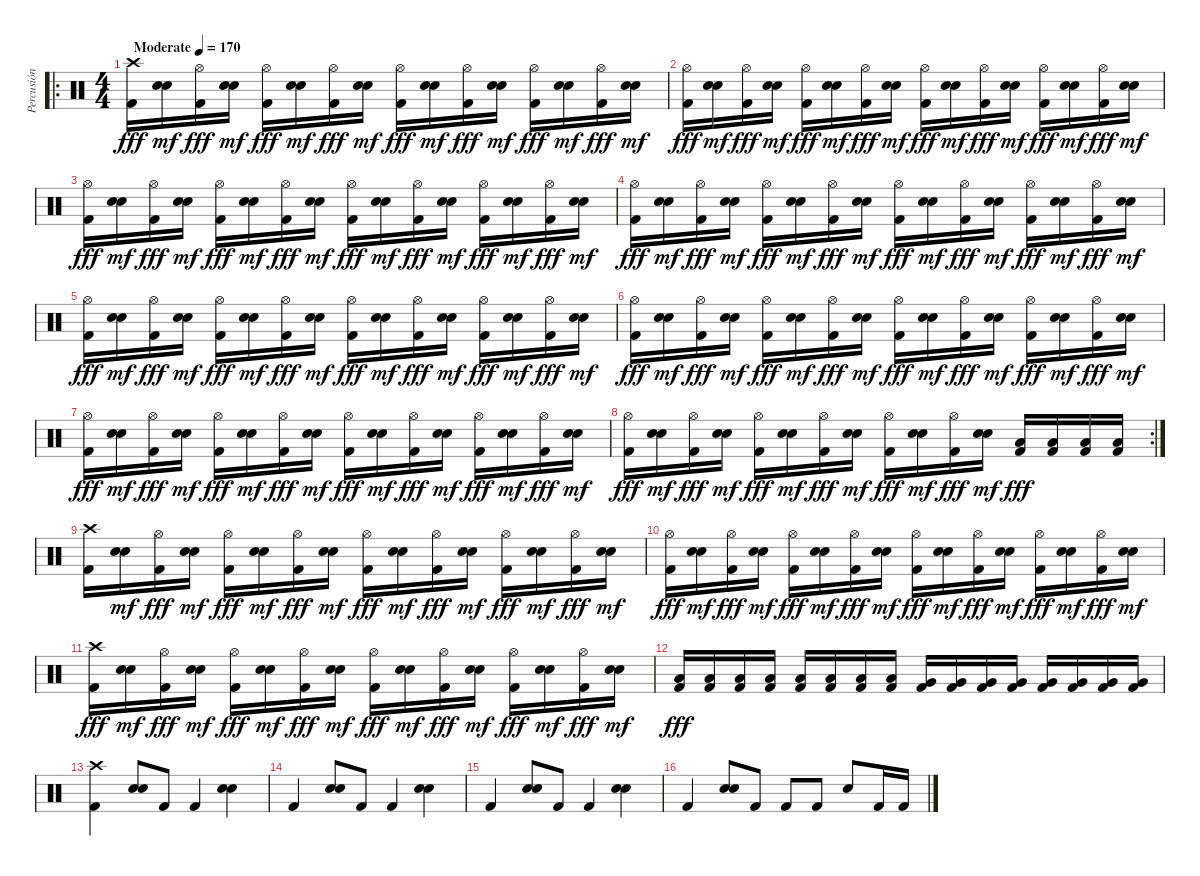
\track ("Percusión" "Percusión") {instrument percussion}
\staff {score}
\articulation defaults
\ro
\ts (4 4)
\tempo (170 "Moderate")
\clef neutral
\ks c
("Kick (hit) 2" "Crash high (hit)").16{dy fff} ("Snare (hit) 2" "Electric Snare (hit)").16{dy mf} ("Kick (hit) 2" "Hi-Hat (open)").16{dy fff} ("Snare (hit) 2" "Electric Snare (hit)").16{dy mf} ("Kick (hit) 2" "Hi-Hat (open)").16{dy fff} ("Snare (hit) 2" "Electric Snare (hit)").16{dy mf} ("Kick (hit) 2" "Hi-Hat (open)").16{dy fff} ("Snare (hit) 2" "Electric Snare (hit)").16{dy mf} ("Kick (hit) 2" "Hi-Hat (open)").16{dy fff} ("Snare (hit) 2" "Electric Snare (hit)").16{dy mf} ("Kick (hit) 2" "Hi-Hat (open)").16{dy fff} ("Snare (hit) 2" "Electric Snare (hit)").16{dy mf} ("Kick (hit) 2" "Hi-Hat (open)").16{dy fff} ("Snare (hit) 2" "Electric Snare (hit)").16{dy mf} ("Kick (hit) 2" "Hi-Hat (open)").16{dy fff} ("Snare (hit) 2" "Electric Snare (hit)").16{dy mf} |
("Kick (hit) 2" "Hi-Hat (open)").16{dy fff} ("Snare (hit) 2" "Electric Snare (hit)").16{dy mf} ("Kick (hit) 2" "Hi-Hat (open)").16{dy fff} ("Snare (hit) 2" "Electric Snare (hit)").16{dy mf} ("Kick (hit) 2" "Hi-Hat (open)").16{dy fff} ("Snare (hit) 2" "Electric Snare (hit)").16{dy mf} ("Kick (hit) 2" "Hi-Hat (open)").16{dy fff} ("Snare (hit) 2" "Electric Snare (hit)").16{dy mf} ("Kick (hit) 2" "Hi-Hat (open)").16{dy fff} ("Snare (hit) 2" "Electric Snare (hit)").16{dy mf} ("Kick (hit) 2" "Hi-Hat (open)").16{dy fff} ("Snare (hit) 2" "Electric Snare (hit)").16{dy mf} ("Kick (hit) 2" "Hi-Hat (open)").16{dy fff} ("Snare (hit) 2" "Electric Snare (hit)").16{dy mf} ("Kick (hit) 2" "Hi-Hat (open)").16{dy fff} ("Snare (hit) 2" "Electric Snare (hit)").16{dy mf} |
("Kick (hit) 2" "Hi-Hat (open)").16{dy fff} ("Snare (hit) 2" "Electric Snare (hit)").16{dy mf} ("Kick (hit) 2" "Hi-Hat (open)").16{dy fff} ("Snare (hit) 2" "Electric Snare (hit)").16{dy mf} ("Kick (hit) 2" "Hi-Hat (open)").16{dy fff} ("Snare (hit) 2" "Electric Snare (hit)").16{dy mf} ("Kick (hit) 2" "Hi-Hat (open)").16{dy fff} ("Snare (hit) 2" "Electric Snare (hit)").16{dy mf} ("Kick (hit) 2" "Hi-Hat (open)").16{dy fff} ("Snare (hit) 2" "Electric Snare (hit)").16{dy mf} ("Kick (hit) 2" "Hi-Hat (open)").16{dy fff} ("Snare (hit) 2" "Electric Snare (hit)").16{dy mf} ("Kick (hit) 2" "Hi-Hat (open)").16{dy fff} ("Snare (hit) 2" "Electric Snare (hit)").16{dy mf} ("Kick (hit) 2" "Hi-Hat (open)").16{dy fff} ("Snare (hit) 2" "Electric Snare (hit)").16{dy mf} |
("Kick (hit) 2" "Hi-Hat (open)").16{dy fff} ("Snare (hit) 2" "Electric Snare (hit)").16{dy mf} ("Kick (hit) 2" "Hi-Hat (open)").16{dy fff} ("Snare (hit) 2" "Electric Snare (hit)").16{dy mf} ("Kick (hit) 2" "Hi-Hat (open)").16{dy fff} ("Snare (hit) 2" "Electric Snare (hit)").16{dy mf} ("Kick (hit) 2" "Hi-Hat (open)").16{dy fff} ("Snare (hit) 2" "Electric Snare (hit)").16{dy mf} ("Kick (hit) 2" "Hi-Hat (open)").16{dy fff} ("Snare (hit) 2" "Electric Snare (hit)").16{dy mf} ("Kick (hit) 2" "Hi-Hat (open)").16{dy fff} ("Snare (hit) 2" "Electric Snare (hit)").16{dy mf} ("Kick (hit) 2" "Hi-Hat (open)").16{dy fff} ("Snare (hit) 2" "Electric Snare (hit)").16{dy mf} ("Kick (hit) 2" "Hi-Hat (open)").16{dy fff} ("Snare (hit) 2" "Electric Snare (hit)").16{dy mf} |
("Kick (hit) 2" "Hi-Hat (open)").16{dy fff} ("Snare (hit) 2" "Electric Snare (hit)").16{dy mf} ("Kick (hit) 2" "Hi-Hat (open)").16{dy fff} ("Snare (hit) 2" "Electric Snare (hit)").16{dy mf} ("Kick (hit) 2" "Hi-Hat (open)").16{dy fff} ("Snare (hit) 2" "Electric Snare (hit)").16{dy mf} ("Kick (hit) 2" "Hi-Hat (open)").16{dy fff} ("Snare (hit) 2" "Electric Snare (hit)").16{dy mf} ("Kick (hit) 2" "Hi-Hat (open)").16{dy fff} ("Snare (hit) 2" "Electric Snare (hit)").16{dy mf} ("Kick (hit) 2" "Hi-Hat (open)").16{dy fff} ("Snare (hit) 2" "Electric Snare (hit)").16{dy mf} ("Kick (hit) 2" "Hi-Hat (open)").16{dy fff} ("Snare (hit) 2" "Electric Snare (hit)").16{dy mf} ("Kick (hit) 2" "Hi-Hat (open)").16{dy fff} ("Snare (hit) 2" "Electric Snare (hit)").16{dy mf} |
("Kick (hit) 2" "Hi-Hat (open)").16{dy fff} ("Snare (hit) 2" "Electric Snare (hit)").16{dy mf} ("Kick (hit) 2" "Hi-Hat (open)").16{dy fff} ("Snare (hit) 2" "Electric Snare (hit)").16{dy mf} ("Kick (hit) 2" "Hi-Hat (open)").16{dy fff} ("Snare (hit) 2" "Electric Snare (hit)").16{dy mf} ("Kick (hit) 2" "Hi-Hat (open)").16{dy fff} ("Snare (hit) 2" "Electric Snare (hit)").16{dy mf} ("Kick (hit) 2" "Hi-Hat (open)").16{dy fff} ("Snare (hit) 2" "Electric Snare (hit)").16{dy mf} ("Kick (hit) 2" "Hi-Hat (open)").16{dy fff} ("Snare (hit) 2" "Electric Snare (hit)").16{dy mf} ("Kick (hit) 2" "Hi-Hat (open)").16{dy fff} ("Snare (hit) 2" "Electric Snare (hit)").16{dy mf} ("Kick (hit) 2" "Hi-Hat (open)").16{dy fff} ("Snare (hit) 2" "Electric Snare (hit)").16{dy mf} |
("Kick (hit) 2" "Hi-Hat (open)").16{dy fff} ("Snare (hit) 2" "Electric Snare (hit)").16{dy mf} ("Kick (hit) 2" "Hi-Hat (open)").16{dy fff} ("Snare (hit) 2" "Electric Snare (hit)").16{dy mf} ("Kick (hit) 2" "Hi-Hat (open)").16{dy fff} ("Snare (hit) 2" "Electric Snare (hit)").16{dy mf} ("Kick (hit) 2" "Hi-Hat (open)").16{dy fff} ("Snare (hit) 2" "Electric Snare (hit)").16{dy mf} ("Kick (hit) 2" "Hi-Hat (open)").16{dy fff} ("Snare (hit) 2" "Electric Snare (hit)").16{dy mf} ("Kick (hit) 2" "Hi-Hat (open)").16{dy fff} ("Snare (hit) 2" "Electric Snare (hit)").16{dy mf} ("Kick (hit) 2" "Hi-Hat (open)").16{dy fff} ("Snare (hit) 2" "Electric Snare (hit)").16{dy mf} ("Kick (hit) 2" "Hi-Hat (open)").16{dy fff} ("Snare (hit) 2" "Electric Snare (hit)").16{dy mf} |
\rc 2
("Kick (hit) 2" "Hi-Hat (open)").16{dy fff} ("Snare (hit) 2" "Electric Snare (hit)").16{dy mf} ("Kick (hit) 2" "Hi-Hat (open)").16{dy fff} ("Snare (hit) 2" "Electric Snare (hit)").16{dy mf} ("Kick (hit) 2" "Hi-Hat (open)").16{dy fff} ("Snare (hit) 2" "Electric Snare (hit)").16{dy mf} ("Kick (hit) 2" "Hi-Hat (open)").16{dy fff} ("Snare (hit) 2" "Electric Snare (hit)").16{dy mf} ("Kick (hit) 2" "Hi-Hat (open)").16{dy fff} ("Snare (hit) 2" "Electric Snare (hit)").16{dy mf} ("Kick (hit) 2" "Hi-Hat (open)").16{dy fff} ("Snare (hit) 2" "Electric Snare (hit)").16{dy mf} ("Kick (hit) 2" "Low Tom (hit)").16{dy fff} ("Kick (hit) 2" "Low Tom (hit)").16 ("Kick (hit) 2" "Low Tom (hit)").16 ("Kick (hit) 2" "Low Tom (hit)").16 |
("Kick (hit) 2" "Crash high (hit)").16 ("Snare (hit) 2" "Electric Snare (hit)").16{dy mf} ("Kick (hit) 2" "Hi-Hat (open)").16{dy fff} ("Snare (hit) 2" "Electric Snare (hit)").16{dy mf} ("Kick (hit) 2" "Hi-Hat (open)").16{dy fff} ("Snare (hit) 2" "Electric Snare (hit)").16{dy mf} ("Kick (hit) 2" "Hi-Hat (open)").16{dy fff} ("Snare (hit) 2" "Electric Snare (hit)").16{dy mf} ("Kick (hit) 2" "Hi-Hat (open)").16{dy fff} ("Snare (hit) 2" "Electric Snare (hit)").16{dy mf} ("Kick (hit) 2" "Hi-Hat (open)").16{dy fff} ("Snare (hit) 2" "Electric Snare (hit)").16{dy mf} ("Kick (hit) 2" "Hi-Hat (open)").16{dy fff} ("Snare (hit) 2" "Electric Snare (hit)").16{dy mf} ("Kick (hit) 2" "Hi-Hat (open)").16{dy fff} ("Snare (hit) 2" "Electric Snare (hit)").16{dy mf} |
("Kick (hit) 2" "Hi-Hat (open)").16{dy fff} ("Snare (hit) 2" "Electric Snare (hit)").16{dy mf} ("Kick (hit) 2" "Hi-Hat (open)").16{dy fff} ("Snare (hit) 2" "Electric Snare (hit)").16{dy mf} ("Kick (hit) 2" "Hi-Hat (open)").16{dy fff} ("Snare (hit) 2" "Electric Snare (hit)").16{dy mf} ("Kick (hit) 2" "Hi-Hat (open)").16{dy fff} ("Snare (hit) 2" "Electric Snare (hit)").16{dy mf} ("Kick (hit) 2" "Hi-Hat (open)").16{dy fff} ("Snare (hit) 2" "Electric Snare (hit)").16{dy mf} ("Kick (hit) 2" "Hi-Hat (open)").16{dy fff} ("Snare (hit) 2" "Electric Snare (hit)").16{dy mf} ("Kick (hit) 2" "Hi-Hat (open)").16{dy fff} ("Snare (hit) 2" "Electric Snare (hit)").16{dy mf} ("Kick (hit) 2" "Hi-Hat (open)").16{dy fff} ("Snare (hit) 2" "Electric Snare (hit)").16{dy mf} |
("Kick (hit) 2" "Crash high (hit)").16{dy fff} ("Snare (hit) 2" "Electric Snare (hit)").16{dy mf} ("Kick (hit) 2" "Hi-Hat (open)").16{dy fff} ("Snare (hit) 2" "Electric Snare (hit)").16{dy mf} ("Kick (hit) 2" "Hi-Hat (open)").16{dy fff} ("Snare (hit) 2" "Electric Snare (hit)").16{dy mf} ("Kick (hit) 2" "Hi-Hat (open)").16{dy fff} ("Snare (hit) 2" "Electric Snare (hit)").16{dy mf} ("Kick (hit) 2" "Hi-Hat (open)").16{dy fff} ("Snare (hit) 2" "Electric Snare (hit)").16{dy mf} ("Kick (hit) 2" "Hi-Hat (open)").16{dy fff} ("Snare (hit) 2" "Electric Snare (hit)").16{dy mf} ("Kick (hit) 2" "Hi-Hat (open)").16{dy fff} ("Snare (hit) 2" "Electric Snare (hit)").16{dy mf} ("Kick (hit) 2" "Hi-Hat (open)").16{dy fff} ("Snare (hit) 2" "Electric Snare (hit)").16{dy mf} |
("Low Tom (hit)" "Kick (hit) 2").16{dy fff} ("Low Tom (hit)" "Kick (hit) 2").16 ("Low Tom (hit)" "Kick (hit) 2").16 ("Low Tom (hit)" "Kick (hit) 2").16 ("Low Tom (hit)" "Kick (hit) 2").16 ("Low Tom (hit)" "Kick (hit) 2").16 ("Low Tom (hit)" "Kick (hit) 2").16 ("Low Tom (hit)" "Kick (hit) 2").16 ("Very Low Tom (hit)" "Kick (hit) 2").16 ("Very Low Tom (hit)" "Kick (hit) 2").16 ("Very Low Tom (hit)" "Kick (hit) 2").16 ("Very Low Tom (hit)" "Kick (hit) 2").16 ("Very Low Tom (hit)" "Kick (hit) 2").16 ("Very Low Tom (hit)" "Kick (hit) 2").16 ("Very Low Tom (hit)" "Kick (hit) 2").16 ("Very Low Tom (hit)" "Kick (hit) 2").16 |
("Crash high (hit)" "Kick (hit) 2").4 ("Snare (hit) 2" "Electric Snare (hit)").8 "Kick (hit) 2".8 "Kick (hit) 2".4 ("Snare (hit) 2" "Electric Snare (hit)").4 |
"Kick (hit) 2".4 ("Snare (hit) 2" "Electric Snare (hit)").8 "Kick (hit) 2".8 "Kick (hit) 2".4 ("Snare (hit) 2" "Electric Snare (hit)").4 |
"Kick (hit) 2".4 ("Snare (hit) 2" "Electric Snare (hit)").8 "Kick (hit) 2".8 "Kick (hit) 2".4 ("Snare (hit) 2" "Electric Snare (hit)").4 |
"Kick (hit) 2".4 ("Snare (hit) 2" "Electric Snare (hit)").8 "Kick (hit) 2".8 "Kick (hit) 2".8 "Kick (hit) 2".8 "Snare (hit) 2".8 "Kick (hit) 2".16 "Kick (hit) 2".16
